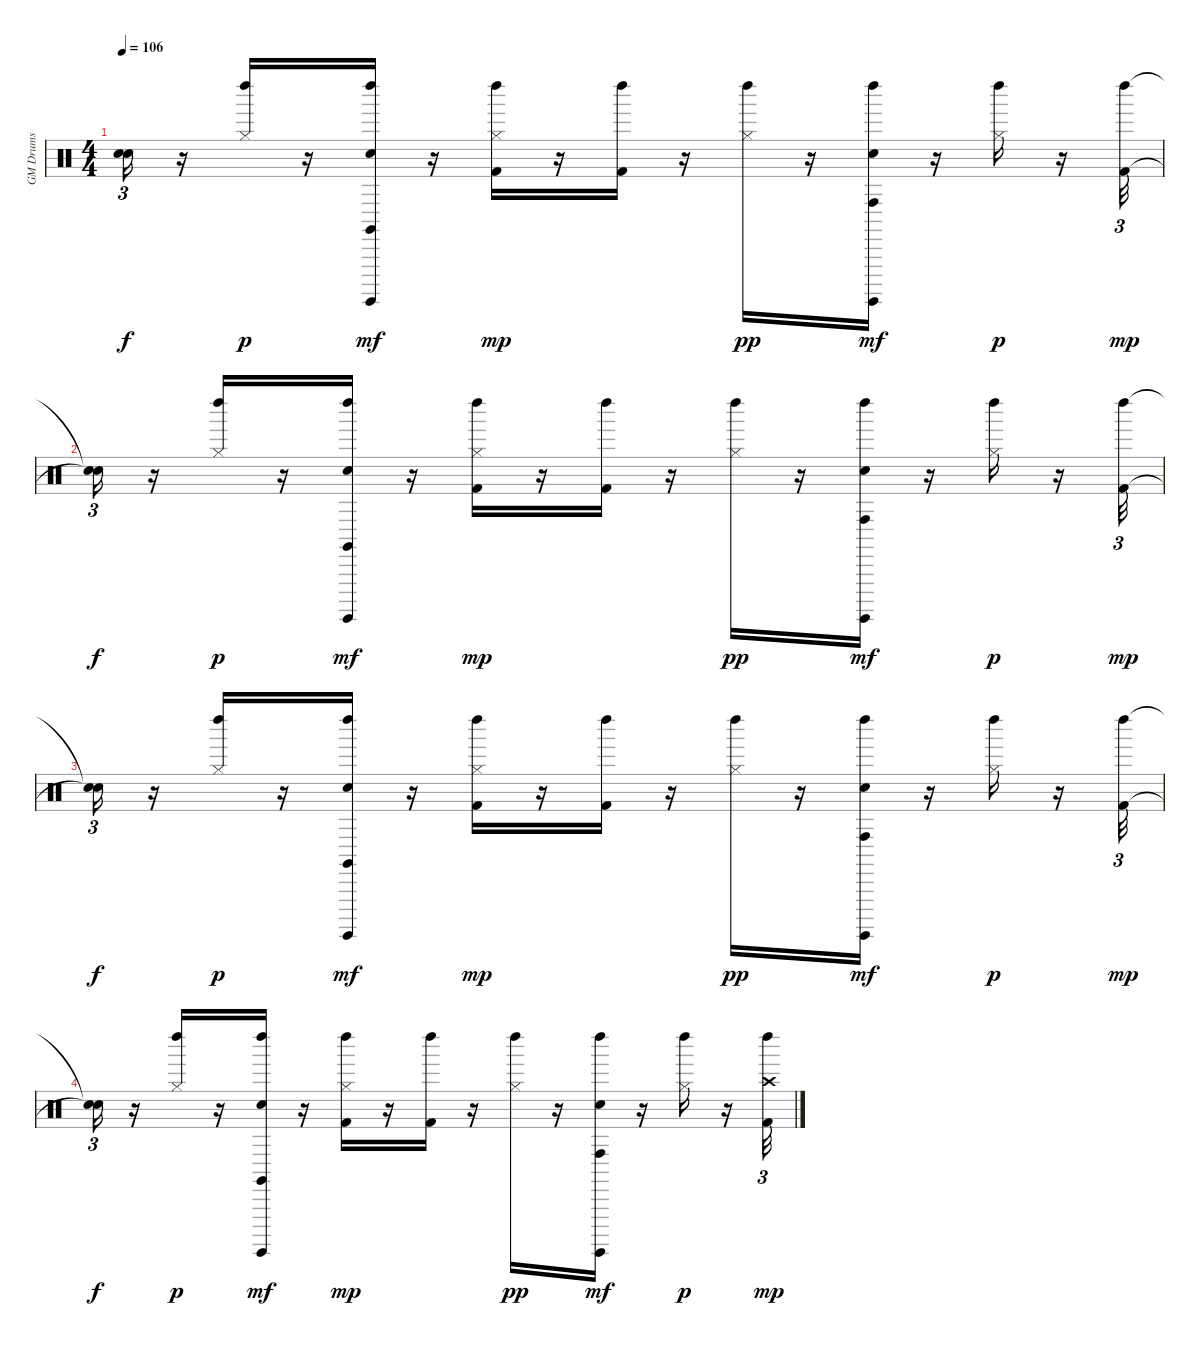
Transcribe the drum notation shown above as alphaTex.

\track ("GM Drums" "GM Drums") {instrument percussion}
\staff {score}
\articulation defaults
\ts (4 4)
\tempo 106
\clef neutral
\ks c
("Snare (hit)"{t} "Snare (hit)"{t}).16{tu (3 2) dy f} r.16 ("Hi-Hat (closed)" "Left Maraca (hit)").16{dy p} r.16 ("Hand Clap (hit)" "Left Maraca (hit)" "Claves (hit)" "Surdo (hit)").16{dy mf} r.16 ("Kick (hit) 2" "Hi-Hat (closed)" "Left Maraca (hit)").16{dy mp} r.16 ("Kick (hit) 2" "Left Maraca (hit)").16 r.16 ("Hi-Hat (closed)" "Left Maraca (hit)").16{dy pp} r.16 ("Hand Clap (hit)" "Conga high (hit)" "Left Maraca (hit)" "Surdo (hit)").16{dy mf} r.16 ("Hi-Hat (closed)" "Left Maraca (hit)").16{dy p} r.16 ("Kick (hit) 2" "Left Maraca (hit)").32{tu (3 2) dy mp} |
("Snare (hit)"{t} "Snare (hit)"{t}).16{tu (3 2) dy f} r.16 ("Hi-Hat (closed)" "Left Maraca (hit)").16{dy p} r.16 ("Hand Clap (hit)" "Left Maraca (hit)" "Claves (hit)" "Surdo (hit)").16{dy mf} r.16 ("Kick (hit) 2" "Hi-Hat (closed)" "Left Maraca (hit)").16{dy mp} r.16 ("Kick (hit) 2" "Left Maraca (hit)").16 r.16 ("Hi-Hat (closed)" "Left Maraca (hit)").16{dy pp} r.16 ("Hand Clap (hit)" "Conga high (hit)" "Left Maraca (hit)" "Surdo (hit)").16{dy mf} r.16 ("Hi-Hat (closed)" "Left Maraca (hit)").16{dy p} r.16 ("Kick (hit) 2" "Left Maraca (hit)").32{tu (3 2) dy mp} |
("Snare (hit)"{t} "Snare (hit)"{t}).16{tu (3 2) dy f} r.16 ("Hi-Hat (closed)" "Left Maraca (hit)").16{dy p} r.16 ("Hand Clap (hit)" "Left Maraca (hit)" "Claves (hit)" "Surdo (hit)").16{dy mf} r.16 ("Kick (hit) 2" "Hi-Hat (closed)" "Left Maraca (hit)").16{dy mp} r.16 ("Kick (hit) 2" "Left Maraca (hit)").16 r.16 ("Hi-Hat (closed)" "Left Maraca (hit)").16{dy pp} r.16 ("Hand Clap (hit)" "Conga high (hit)" "Left Maraca (hit)" "Surdo (hit)").16{dy mf} r.16 ("Hi-Hat (closed)" "Left Maraca (hit)").16{dy p} r.16 ("Kick (hit) 2" "Left Maraca (hit)").32{tu (3 2) dy mp} |
("Snare (hit)"{t} "Snare (hit)"{t}).16{tu (3 2) dy f} r.16 ("Hi-Hat (closed)" "Left Maraca (hit)").16{dy p} r.16 ("Hand Clap (hit)" "Left Maraca (hit)" "Claves (hit)" "Surdo (hit)").16{dy mf} r.16 ("Kick (hit) 2" "Hi-Hat (closed)" "Left Maraca (hit)").16{dy mp} r.16 ("Kick (hit) 2" "Left Maraca (hit)").16 r.16 ("Hi-Hat (closed)" "Left Maraca (hit)").16{dy pp} r.16 ("Hand Clap (hit)" "Conga high (hit)" "Left Maraca (hit)" "Surdo (hit)").16{dy mf} r.16 ("Hi-Hat (closed)" "Left Maraca (hit)").16{dy p} r.16 ("Kick (hit) 2" "Crash high (hit)" "Left Maraca (hit)").32{tu (3 2) dy mp}
